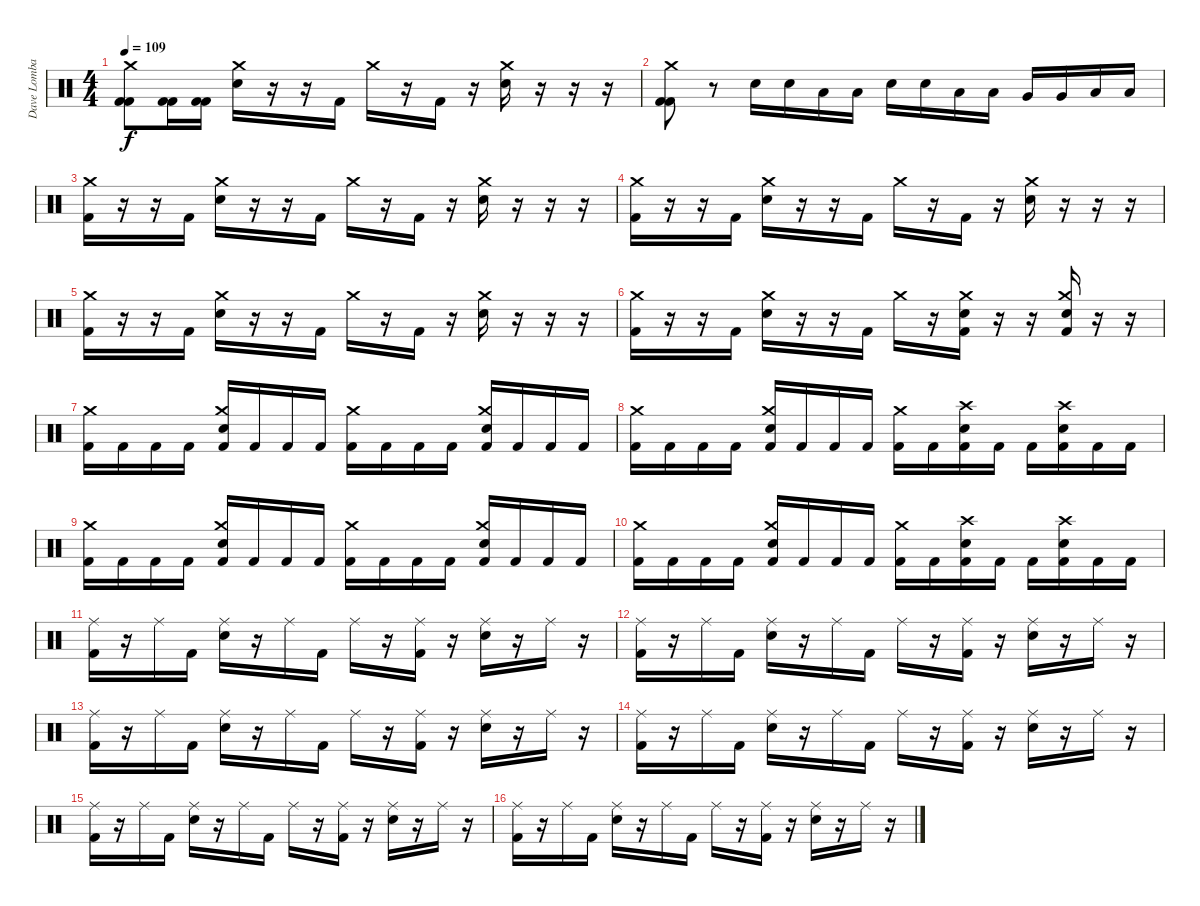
\track ("Dave Lombardo" "Dave Lomba") {instrument percussion}
\staff {score}
\articulation defaults
\ts (4 4)
\tempo 109
\clef neutral
\ks c
("Kick (hit) 2" "Crash medium (hit)" "Kick (hit) 2").8{dy f} ("Kick (hit) 2" "Kick (hit) 2").16 ("Kick (hit) 2" "Kick (hit) 2").16 ("Crash medium (hit)" "Electric Snare (hit)").16 r.16 r.16 "Kick (hit) 2".16 "Crash medium (hit)".16 r.16 "Kick (hit) 2".16 r.16 ("Crash medium (hit)" "Electric Snare (hit)").16 r.16 r.16 r.16 |
("Kick (hit) 2" "Crash medium (hit)" "Kick (hit) 2").8 r.8 "Electric Snare (hit)".16 "Electric Snare (hit)".16 "Low Tom (hit)".16 "Low Tom (hit)".16 "Electric Snare (hit)".16 "Electric Snare (hit)".16 "Low Tom (hit)".16 "Low Tom (hit)".16 "Very Low Tom (hit)".16 "Very Low Tom (hit)".16 "Low Floor Tom (hit)".16 "Low Floor Tom (hit)".16 |
("Crash medium (hit)" "Kick (hit) 2").16 r.16 r.16 "Kick (hit) 2".16 ("Crash medium (hit)" "Electric Snare (hit)").16 r.16 r.16 "Kick (hit) 2".16 "Crash medium (hit)".16 r.16 "Kick (hit) 2".16 r.16 ("Crash medium (hit)" "Electric Snare (hit)").16 r.16 r.16 r.16 |
("Crash medium (hit)" "Kick (hit) 2").16 r.16 r.16 "Kick (hit) 2".16 ("Crash medium (hit)" "Electric Snare (hit)").16 r.16 r.16 "Kick (hit) 2".16 "Crash medium (hit)".16 r.16 "Kick (hit) 2".16 r.16 ("Crash medium (hit)" "Electric Snare (hit)").16 r.16 r.16 r.16 |
("Crash medium (hit)" "Kick (hit) 2").16 r.16 r.16 "Kick (hit) 2".16 ("Crash medium (hit)" "Electric Snare (hit)").16 r.16 r.16 "Kick (hit) 2".16 "Crash medium (hit)".16 r.16 "Kick (hit) 2".16 r.16 ("Crash medium (hit)" "Electric Snare (hit)").16 r.16 r.16 r.16 |
("Crash medium (hit)" "Kick (hit) 2").16 r.16 r.16 "Kick (hit) 2".16 ("Crash medium (hit)" "Electric Snare (hit)").16 r.16 r.16 "Kick (hit) 2".16 "Crash medium (hit)".16 r.16 ("Crash medium (hit)" "Electric Snare (hit)" "Kick (hit) 2").16 r.16 r.16 ("Crash medium (hit)" "Electric Snare (hit)" "Kick (hit) 2").16 r.16 r.16 |
("Crash medium (hit)" "Kick (hit) 2").16 "Kick (hit) 2".16 "Kick (hit) 2".16 "Kick (hit) 2".16 ("Crash medium (hit)" "Electric Snare (hit)" "Kick (hit) 2").16 "Kick (hit) 2".16 "Kick (hit) 2".16 "Kick (hit) 2".16 ("Crash medium (hit)" "Kick (hit) 2").16 "Kick (hit) 2".16 "Kick (hit) 2".16 "Kick (hit) 2".16 ("Crash medium (hit)" "Electric Snare (hit)" "Kick (hit) 2").16 "Kick (hit) 2".16 "Kick (hit) 2".16 "Kick (hit) 2".16 |
("Crash medium (hit)" "Kick (hit) 2").16 "Kick (hit) 2".16 "Kick (hit) 2".16 "Kick (hit) 2".16 ("Crash medium (hit)" "Electric Snare (hit)" "Kick (hit) 2").16 "Kick (hit) 2".16 "Kick (hit) 2".16 "Kick (hit) 2".16 ("Crash medium (hit)" "Kick (hit) 2").16 "Kick (hit) 2".16 ("Crash high (hit)" "Electric Snare (hit)" "Kick (hit) 2").16 "Kick (hit) 2".16 "Kick (hit) 2".16 ("Crash high (hit)" "Electric Snare (hit)" "Kick (hit) 2").16 "Kick (hit) 2".16 "Kick (hit) 2".16 |
("Crash medium (hit)" "Kick (hit) 2").16 "Kick (hit) 2".16 "Kick (hit) 2".16 "Kick (hit) 2".16 ("Crash medium (hit)" "Electric Snare (hit)" "Kick (hit) 2").16 "Kick (hit) 2".16 "Kick (hit) 2".16 "Kick (hit) 2".16 ("Crash medium (hit)" "Kick (hit) 2").16 "Kick (hit) 2".16 "Kick (hit) 2".16 "Kick (hit) 2".16 ("Crash medium (hit)" "Electric Snare (hit)" "Kick (hit) 2").16 "Kick (hit) 2".16 "Kick (hit) 2".16 "Kick (hit) 2".16 |
("Crash medium (hit)" "Kick (hit) 2").16 "Kick (hit) 2".16 "Kick (hit) 2".16 "Kick (hit) 2".16 ("Crash medium (hit)" "Electric Snare (hit)" "Kick (hit) 2").16 "Kick (hit) 2".16 "Kick (hit) 2".16 "Kick (hit) 2".16 ("Crash medium (hit)" "Kick (hit) 2").16 "Kick (hit) 2".16 ("Crash high (hit)" "Electric Snare (hit)" "Kick (hit) 2").16 "Kick (hit) 2".16 "Kick (hit) 2".16 ("Crash high (hit)" "Electric Snare (hit)" "Kick (hit) 2").16 "Kick (hit) 2".16 "Kick (hit) 2".16 |
("Ride (middle)" "Kick (hit) 2").16 r.16 "Ride (middle)".16 "Kick (hit) 2".16 ("Ride (middle)" "Electric Snare (hit)").16 r.16 "Ride (middle)".16 "Kick (hit) 2".16 "Ride (middle)".16 r.16 ("Ride (middle)" "Kick (hit) 2").16 r.16 ("Ride (middle)" "Electric Snare (hit)").16 r.16 "Ride (middle)".16 r.16 |
("Ride (middle)" "Kick (hit) 2").16 r.16 "Ride (middle)".16 "Kick (hit) 2".16 ("Ride (middle)" "Electric Snare (hit)").16 r.16 "Ride (middle)".16 "Kick (hit) 2".16 "Ride (middle)".16 r.16 ("Ride (middle)" "Kick (hit) 2").16 r.16 ("Ride (middle)" "Electric Snare (hit)").16 r.16 "Ride (middle)".16 r.16 |
("Ride (middle)" "Kick (hit) 2").16 r.16 "Ride (middle)".16 "Kick (hit) 2".16 ("Ride (middle)" "Electric Snare (hit)").16 r.16 "Ride (middle)".16 "Kick (hit) 2".16 "Ride (middle)".16 r.16 ("Ride (middle)" "Kick (hit) 2").16 r.16 ("Ride (middle)" "Electric Snare (hit)").16 r.16 "Ride (middle)".16 r.16 |
("Ride (middle)" "Kick (hit) 2").16 r.16 "Ride (middle)".16 "Kick (hit) 2".16 ("Ride (middle)" "Electric Snare (hit)").16 r.16 "Ride (middle)".16 "Kick (hit) 2".16 "Ride (middle)".16 r.16 ("Ride (middle)" "Kick (hit) 2").16 r.16 ("Ride (middle)" "Electric Snare (hit)").16 r.16 "Ride (middle)".16 r.16 |
("Ride (middle)" "Kick (hit) 2").16 r.16 "Ride (middle)".16 "Kick (hit) 2".16 ("Ride (middle)" "Electric Snare (hit)").16 r.16 "Ride (middle)".16 "Kick (hit) 2".16 "Ride (middle)".16 r.16 ("Ride (middle)" "Kick (hit) 2").16 r.16 ("Ride (middle)" "Electric Snare (hit)").16 r.16 "Ride (middle)".16 r.16 |
("Ride (middle)" "Kick (hit) 2").16 r.16 "Ride (middle)".16 "Kick (hit) 2".16 ("Ride (middle)" "Electric Snare (hit)").16 r.16 "Ride (middle)".16 "Kick (hit) 2".16 "Ride (middle)".16 r.16 ("Ride (middle)" "Kick (hit) 2").16 r.16 ("Ride (middle)" "Electric Snare (hit)").16 r.16 "Ride (middle)".16 r.16
